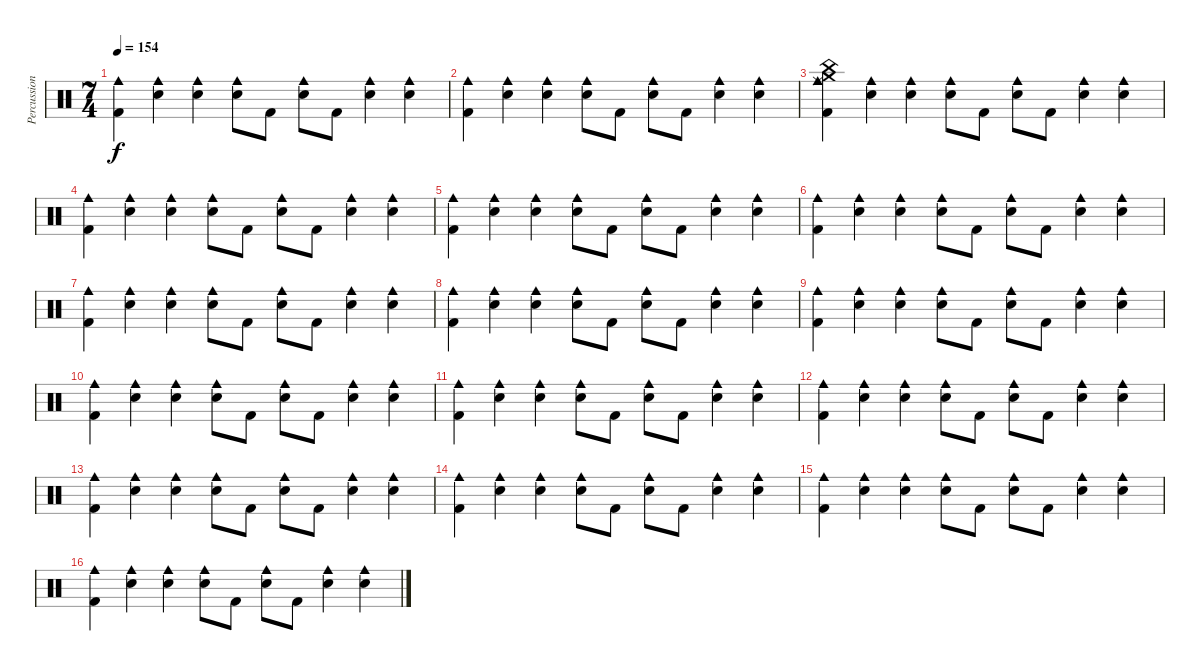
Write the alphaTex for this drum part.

\track ("Percussion" "Percussion") {instrument percussion}
\staff {score}
\articulation defaults
\ts (7 4)
\tempo 154
\clef neutral
\ks c
("Cowbell medium (hit)" "Kick (hit) 2").4{dy f} ("Cowbell medium (hit)" "Snare (hit) 2").4 ("Cowbell medium (hit)" "Snare (hit) 2").4 ("Cowbell medium (hit)" "Snare (hit) 2").8 "Kick (hit) 2".8 ("Cowbell medium (hit)" "Snare (hit) 2").8 "Kick (hit) 2".8 ("Cowbell medium (hit)" "Snare (hit) 2").4 ("Cowbell medium (hit)" "Snare (hit) 2").4 |
("Cowbell medium (hit)" "Kick (hit) 2").4 ("Cowbell medium (hit)" "Snare (hit) 2").4 ("Cowbell medium (hit)" "Snare (hit) 2").4 ("Cowbell medium (hit)" "Snare (hit) 2").8 "Kick (hit) 2".8 ("Cowbell medium (hit)" "Snare (hit) 2").8 "Kick (hit) 2".8 ("Cowbell medium (hit)" "Snare (hit) 2").4 ("Cowbell medium (hit)" "Snare (hit) 2").4 |
("China (hit)" "Cowbell medium (hit)" "Crash medium (hit)" "Ride (middle)" "Kick (hit) 2").4 ("Cowbell medium (hit)" "Snare (hit) 2").4 ("Cowbell medium (hit)" "Snare (hit) 2").4 ("Cowbell medium (hit)" "Snare (hit) 2").8 "Kick (hit) 2".8 ("Cowbell medium (hit)" "Snare (hit) 2").8 "Kick (hit) 2".8 ("Cowbell medium (hit)" "Snare (hit) 2").4 ("Cowbell medium (hit)" "Snare (hit) 2").4 |
("Cowbell medium (hit)" "Kick (hit) 2").4 ("Cowbell medium (hit)" "Snare (hit) 2").4 ("Cowbell medium (hit)" "Snare (hit) 2").4 ("Cowbell medium (hit)" "Snare (hit) 2").8 "Kick (hit) 2".8 ("Cowbell medium (hit)" "Snare (hit) 2").8 "Kick (hit) 2".8 ("Cowbell medium (hit)" "Snare (hit) 2").4 ("Cowbell medium (hit)" "Snare (hit) 2").4 |
("Cowbell medium (hit)" "Kick (hit) 2").4 ("Cowbell medium (hit)" "Snare (hit) 2").4 ("Cowbell medium (hit)" "Snare (hit) 2").4 ("Cowbell medium (hit)" "Snare (hit) 2").8 "Kick (hit) 2".8 ("Cowbell medium (hit)" "Snare (hit) 2").8 "Kick (hit) 2".8 ("Cowbell medium (hit)" "Snare (hit) 2").4 ("Cowbell medium (hit)" "Snare (hit) 2").4 |
("Cowbell medium (hit)" "Kick (hit) 2").4 ("Cowbell medium (hit)" "Snare (hit) 2").4 ("Cowbell medium (hit)" "Snare (hit) 2").4 ("Cowbell medium (hit)" "Snare (hit) 2").8 "Kick (hit) 2".8 ("Cowbell medium (hit)" "Snare (hit) 2").8 "Kick (hit) 2".8 ("Cowbell medium (hit)" "Snare (hit) 2").4 ("Cowbell medium (hit)" "Snare (hit) 2").4 |
("Cowbell medium (hit)" "Kick (hit) 2").4 ("Cowbell medium (hit)" "Snare (hit) 2").4 ("Cowbell medium (hit)" "Snare (hit) 2").4 ("Cowbell medium (hit)" "Snare (hit) 2").8 "Kick (hit) 2".8 ("Cowbell medium (hit)" "Snare (hit) 2").8 "Kick (hit) 2".8 ("Cowbell medium (hit)" "Snare (hit) 2").4 ("Cowbell medium (hit)" "Snare (hit) 2").4 |
("Cowbell medium (hit)" "Kick (hit) 2").4 ("Cowbell medium (hit)" "Snare (hit) 2").4 ("Cowbell medium (hit)" "Snare (hit) 2").4 ("Cowbell medium (hit)" "Snare (hit) 2").8 "Kick (hit) 2".8 ("Cowbell medium (hit)" "Snare (hit) 2").8 "Kick (hit) 2".8 ("Cowbell medium (hit)" "Snare (hit) 2").4 ("Cowbell medium (hit)" "Snare (hit) 2").4 |
("Cowbell medium (hit)" "Kick (hit) 2").4 ("Cowbell medium (hit)" "Snare (hit) 2").4 ("Cowbell medium (hit)" "Snare (hit) 2").4 ("Cowbell medium (hit)" "Snare (hit) 2").8 "Kick (hit) 2".8 ("Cowbell medium (hit)" "Snare (hit) 2").8 "Kick (hit) 2".8 ("Cowbell medium (hit)" "Snare (hit) 2").4 ("Cowbell medium (hit)" "Snare (hit) 2").4 |
("Cowbell medium (hit)" "Kick (hit) 2").4 ("Cowbell medium (hit)" "Snare (hit) 2").4 ("Cowbell medium (hit)" "Snare (hit) 2").4 ("Cowbell medium (hit)" "Snare (hit) 2").8 "Kick (hit) 2".8 ("Cowbell medium (hit)" "Snare (hit) 2").8 "Kick (hit) 2".8 ("Cowbell medium (hit)" "Snare (hit) 2").4 ("Cowbell medium (hit)" "Snare (hit) 2").4 |
("Cowbell medium (hit)" "Kick (hit) 2").4 ("Cowbell medium (hit)" "Snare (hit) 2").4 ("Cowbell medium (hit)" "Snare (hit) 2").4 ("Cowbell medium (hit)" "Snare (hit) 2").8 "Kick (hit) 2".8 ("Cowbell medium (hit)" "Snare (hit) 2").8 "Kick (hit) 2".8 ("Cowbell medium (hit)" "Snare (hit) 2").4 ("Cowbell medium (hit)" "Snare (hit) 2").4 |
("Cowbell medium (hit)" "Kick (hit) 2").4 ("Cowbell medium (hit)" "Snare (hit) 2").4 ("Cowbell medium (hit)" "Snare (hit) 2").4 ("Cowbell medium (hit)" "Snare (hit) 2").8 "Kick (hit) 2".8 ("Cowbell medium (hit)" "Snare (hit) 2").8 "Kick (hit) 2".8 ("Cowbell medium (hit)" "Snare (hit) 2").4 ("Cowbell medium (hit)" "Snare (hit) 2").4 |
("Cowbell medium (hit)" "Kick (hit) 2").4 ("Cowbell medium (hit)" "Snare (hit) 2").4 ("Cowbell medium (hit)" "Snare (hit) 2").4 ("Cowbell medium (hit)" "Snare (hit) 2").8 "Kick (hit) 2".8 ("Cowbell medium (hit)" "Snare (hit) 2").8 "Kick (hit) 2".8 ("Cowbell medium (hit)" "Snare (hit) 2").4 ("Cowbell medium (hit)" "Snare (hit) 2").4 |
("Cowbell medium (hit)" "Kick (hit) 2").4 ("Cowbell medium (hit)" "Snare (hit) 2").4 ("Cowbell medium (hit)" "Snare (hit) 2").4 ("Cowbell medium (hit)" "Snare (hit) 2").8 "Kick (hit) 2".8 ("Cowbell medium (hit)" "Snare (hit) 2").8 "Kick (hit) 2".8 ("Cowbell medium (hit)" "Snare (hit) 2").4 ("Cowbell medium (hit)" "Snare (hit) 2").4 |
("Cowbell medium (hit)" "Kick (hit) 2").4 ("Cowbell medium (hit)" "Snare (hit) 2").4 ("Cowbell medium (hit)" "Snare (hit) 2").4 ("Cowbell medium (hit)" "Snare (hit) 2").8 "Kick (hit) 2".8 ("Cowbell medium (hit)" "Snare (hit) 2").8 "Kick (hit) 2".8 ("Cowbell medium (hit)" "Snare (hit) 2").4 ("Cowbell medium (hit)" "Snare (hit) 2").4 |
("Cowbell medium (hit)" "Kick (hit) 2").4 ("Cowbell medium (hit)" "Snare (hit) 2").4 ("Cowbell medium (hit)" "Snare (hit) 2").4 ("Cowbell medium (hit)" "Snare (hit) 2").8 "Kick (hit) 2".8 ("Cowbell medium (hit)" "Snare (hit) 2").8 "Kick (hit) 2".8 ("Cowbell medium (hit)" "Snare (hit) 2").4 ("Cowbell medium (hit)" "Snare (hit) 2").4
